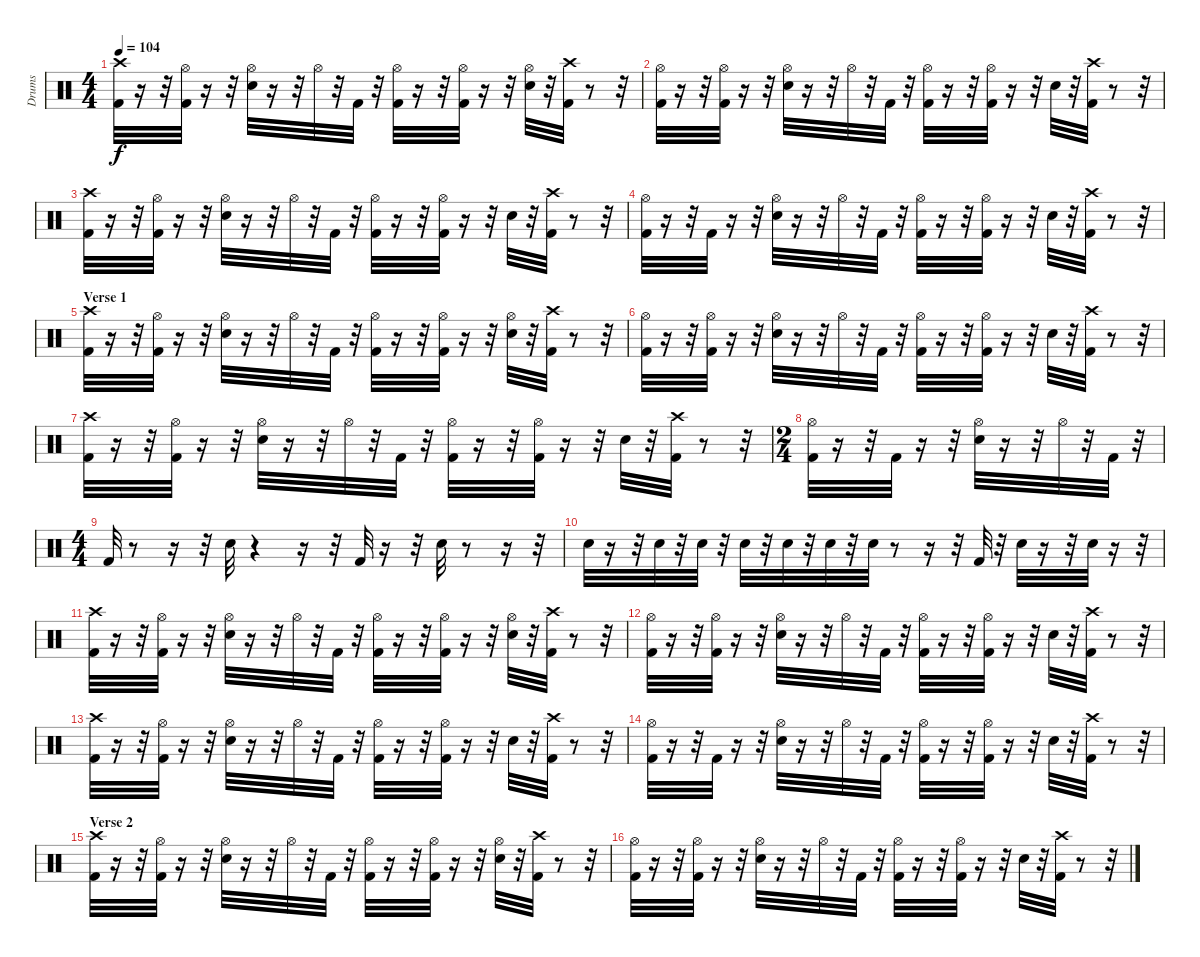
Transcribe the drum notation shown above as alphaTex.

\track ("Drums" "Drums") {instrument percussion}
\staff {score}
\articulation defaults
\ts (4 4)
\tempo 104
\clef neutral
\ks c
("Crash high (hit)" "Kick (hit) 2").32{dy f} r.16 r.32 ("Hi-Hat (open)" "Kick (hit) 2").32 r.16 r.32 ("Hi-Hat (open)" "Snare (hit) 2").32 r.16 r.32 "Hi-Hat (open)".32 r.32 "Kick (hit) 2".32 r.32 ("Kick (hit) 2" "Hi-Hat (open)").32 r.16 r.32 ("Kick (hit) 2" "Hi-Hat (open)").32 r.16 r.32 ("Hi-Hat (open)" "Snare (hit) 2").32 r.32 ("Kick (hit) 2" "Crash high (hit)").32 r.8 r.32 |
("Hi-Hat (open)" "Kick (hit) 2").32 r.16 r.32 ("Kick (hit) 2" "Hi-Hat (open)").32 r.16 r.32 ("Hi-Hat (open)" "Snare (hit) 2").32 r.16 r.32 "Hi-Hat (open)".32 r.32 "Kick (hit) 2".32 r.32 ("Kick (hit) 2" "Hi-Hat (open)").32 r.16 r.32 ("Kick (hit) 2" "Hi-Hat (open)").32 r.16 r.32 "Snare (hit) 2".32 r.32 ("Kick (hit) 2" "Crash high (hit)").32 r.8 r.32 |
("Crash high (hit)" "Kick (hit) 2").32 r.16 r.32 ("Kick (hit) 2" "Hi-Hat (open)").32 r.16 r.32 ("Snare (hit) 2" "Hi-Hat (open)").32 r.16 r.32 "Hi-Hat (open)".32 r.32 "Kick (hit) 2".32 r.32 ("Kick (hit) 2" "Hi-Hat (open)").32 r.16 r.32 ("Hi-Hat (open)" "Kick (hit) 2").32 r.16 r.32 "Snare (hit) 2".32 r.32 ("Crash high (hit)" "Kick (hit) 2").32 r.8 r.32 |
("Kick (hit) 2" "Hi-Hat (open)").32 r.16 r.32 "Kick (hit) 2".32 r.16 r.32 ("Snare (hit) 2" "Hi-Hat (open)").32 r.16 r.32 "Hi-Hat (open)".32 r.32 "Kick (hit) 2".32 r.32 ("Hi-Hat (open)" "Kick (hit) 2").32 r.16 r.32 ("Kick (hit) 2" "Hi-Hat (open)").32 r.16 r.32 "Snare (hit) 2".32 r.32 ("Kick (hit) 2" "Crash high (hit)").32 r.8 r.32 |
\section ("" "Verse 1")
("Crash high (hit)" "Kick (hit) 2").32 r.16 r.32 ("Hi-Hat (open)" "Kick (hit) 2").32 r.16 r.32 ("Hi-Hat (open)" "Snare (hit) 2").32 r.16 r.32 "Hi-Hat (open)".32 r.32 "Kick (hit) 2".32 r.32 ("Kick (hit) 2" "Hi-Hat (open)").32 r.16 r.32 ("Kick (hit) 2" "Hi-Hat (open)").32 r.16 r.32 ("Hi-Hat (open)" "Snare (hit) 2").32 r.32 ("Kick (hit) 2" "Crash high (hit)").32 r.8 r.32 |
("Hi-Hat (open)" "Kick (hit) 2").32 r.16 r.32 ("Kick (hit) 2" "Hi-Hat (open)").32 r.16 r.32 ("Hi-Hat (open)" "Snare (hit) 2").32 r.16 r.32 "Hi-Hat (open)".32 r.32 "Kick (hit) 2".32 r.32 ("Kick (hit) 2" "Hi-Hat (open)").32 r.16 r.32 ("Kick (hit) 2" "Hi-Hat (open)").32 r.16 r.32 "Snare (hit) 2".32 r.32 ("Kick (hit) 2" "Crash high (hit)").32 r.8 r.32 |
("Crash high (hit)" "Kick (hit) 2").32 r.16 r.32 ("Kick (hit) 2" "Hi-Hat (open)").32 r.16 r.32 ("Snare (hit) 2" "Hi-Hat (open)").32 r.16 r.32 "Hi-Hat (open)".32 r.32 "Kick (hit) 2".32 r.32 ("Kick (hit) 2" "Hi-Hat (open)").32 r.16 r.32 ("Hi-Hat (open)" "Kick (hit) 2").32 r.16 r.32 "Snare (hit) 2".32 r.32 ("Crash high (hit)" "Kick (hit) 2").32 r.8 r.32 |
\ts (2 4)
("Kick (hit) 2" "Hi-Hat (open)").32 r.16 r.32 "Kick (hit) 2".32 r.16 r.32 ("Snare (hit) 2" "Hi-Hat (open)").32 r.16 r.32 "Hi-Hat (open)".32 r.32 "Kick (hit) 2".32 r.32 |
\ts (4 4)
"Kick (hit) 2".32 r.8 r.16 r.32 "Snare (hit) 2".32 r.4 r.16 r.32 "Kick (hit) 2".32 r.16 r.32 "Snare (hit) 2".32 r.8 r.16 r.32 |
"Snare (hit) 2".32 r.16 r.32 "Snare (hit) 2".32 r.32 "Snare (hit) 2".32 r.32 "Snare (hit) 2".32 r.32 "Snare (hit) 2".32 r.32 "Snare (hit) 2".32 r.32 "Snare (hit) 2".32 r.8 r.16 r.32 "Kick (hit) 2".32 r.32 "Snare (hit) 2".32 r.16 r.32 "Snare (hit) 2".32 r.16 r.32 |
("Crash high (hit)" "Kick (hit) 2").32 r.16 r.32 ("Hi-Hat (open)" "Kick (hit) 2").32 r.16 r.32 ("Hi-Hat (open)" "Snare (hit) 2").32 r.16 r.32 "Hi-Hat (open)".32 r.32 "Kick (hit) 2".32 r.32 ("Kick (hit) 2" "Hi-Hat (open)").32 r.16 r.32 ("Kick (hit) 2" "Hi-Hat (open)").32 r.16 r.32 ("Hi-Hat (open)" "Snare (hit) 2").32 r.32 ("Kick (hit) 2" "Crash high (hit)").32 r.8 r.32 |
("Hi-Hat (open)" "Kick (hit) 2").32 r.16 r.32 ("Kick (hit) 2" "Hi-Hat (open)").32 r.16 r.32 ("Hi-Hat (open)" "Snare (hit) 2").32 r.16 r.32 "Hi-Hat (open)".32 r.32 "Kick (hit) 2".32 r.32 ("Kick (hit) 2" "Hi-Hat (open)").32 r.16 r.32 ("Kick (hit) 2" "Hi-Hat (open)").32 r.16 r.32 "Snare (hit) 2".32 r.32 ("Kick (hit) 2" "Crash high (hit)").32 r.8 r.32 |
("Crash high (hit)" "Kick (hit) 2").32 r.16 r.32 ("Kick (hit) 2" "Hi-Hat (open)").32 r.16 r.32 ("Snare (hit) 2" "Hi-Hat (open)").32 r.16 r.32 "Hi-Hat (open)".32 r.32 "Kick (hit) 2".32 r.32 ("Kick (hit) 2" "Hi-Hat (open)").32 r.16 r.32 ("Hi-Hat (open)" "Kick (hit) 2").32 r.16 r.32 "Snare (hit) 2".32 r.32 ("Crash high (hit)" "Kick (hit) 2").32 r.8 r.32 |
("Kick (hit) 2" "Hi-Hat (open)").32 r.16 r.32 "Kick (hit) 2".32 r.16 r.32 ("Snare (hit) 2" "Hi-Hat (open)").32 r.16 r.32 "Hi-Hat (open)".32 r.32 "Kick (hit) 2".32 r.32 ("Hi-Hat (open)" "Kick (hit) 2").32 r.16 r.32 ("Kick (hit) 2" "Hi-Hat (open)").32 r.16 r.32 "Snare (hit) 2".32 r.32 ("Kick (hit) 2" "Crash high (hit)").32 r.8 r.32 |
\section ("" "Verse 2")
("Crash high (hit)" "Kick (hit) 2").32 r.16 r.32 ("Hi-Hat (open)" "Kick (hit) 2").32 r.16 r.32 ("Hi-Hat (open)" "Snare (hit) 2").32 r.16 r.32 "Hi-Hat (open)".32 r.32 "Kick (hit) 2".32 r.32 ("Kick (hit) 2" "Hi-Hat (open)").32 r.16 r.32 ("Kick (hit) 2" "Hi-Hat (open)").32 r.16 r.32 ("Hi-Hat (open)" "Snare (hit) 2").32 r.32 ("Kick (hit) 2" "Crash high (hit)").32 r.8 r.32 |
("Hi-Hat (open)" "Kick (hit) 2").32 r.16 r.32 ("Kick (hit) 2" "Hi-Hat (open)").32 r.16 r.32 ("Hi-Hat (open)" "Snare (hit) 2").32 r.16 r.32 "Hi-Hat (open)".32 r.32 "Kick (hit) 2".32 r.32 ("Kick (hit) 2" "Hi-Hat (open)").32 r.16 r.32 ("Kick (hit) 2" "Hi-Hat (open)").32 r.16 r.32 "Snare (hit) 2".32 r.32 ("Kick (hit) 2" "Crash high (hit)").32 r.8 r.32
